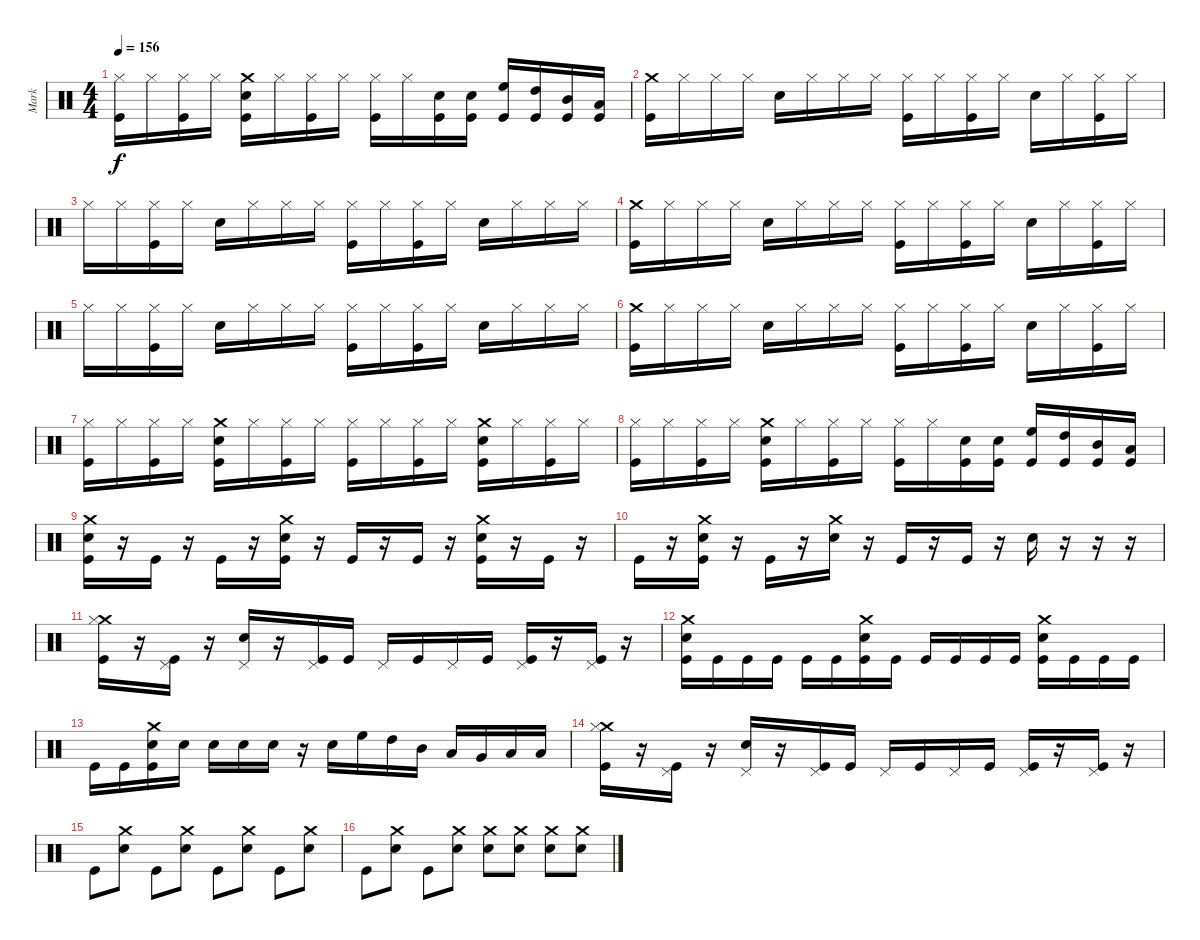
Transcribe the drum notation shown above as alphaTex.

\track ("Mark" "Mark") {instrument percussion}
\staff {score}
\articulation defaults
\ts (4 4)
\tempo 156
\clef neutral
\ks c
("Kick (hit)" "Hi-Hat (closed)").16{dy f} "Hi-Hat (closed)".16 ("Kick (hit)" "Hi-Hat (closed)").16 "Hi-Hat (closed)".16 ("Kick (hit)" "Snare (hit) 2" "Crash medium (hit)").16 "Hi-Hat (closed)".16 ("Kick (hit)" "Hi-Hat (closed)").16 "Hi-Hat (closed)".16 ("Kick (hit)" "Hi-Hat (closed)").16 "Hi-Hat (closed)".16 ("Snare (hit) 2" "Kick (hit)").16 ("Snare (hit) 2" "Kick (hit)").16 ("High Floor Tom (hit)" "Kick (hit)").16 ("High Tom (hit)" "Kick (hit)").16 ("Mid Tom (hit)" "Kick (hit)").16 ("Low Tom (hit)" "Kick (hit)").16 |
("Kick (hit)" "Crash medium (hit)").16 "Hi-Hat (closed)".16 "Hi-Hat (closed)".16 "Hi-Hat (closed)".16 "Snare (hit) 2".16 "Hi-Hat (closed)".16 "Hi-Hat (closed)".16 "Hi-Hat (closed)".16 ("Kick (hit)" "Hi-Hat (closed)").16 "Hi-Hat (closed)".16 ("Kick (hit)" "Hi-Hat (closed)").16 "Hi-Hat (closed)".16 "Snare (hit) 2".16 "Hi-Hat (closed)".16 ("Kick (hit)" "Hi-Hat (closed)").16 "Hi-Hat (closed)".16 |
"Hi-Hat (closed)".16 "Hi-Hat (closed)".16 ("Kick (hit)" "Hi-Hat (closed)").16 "Hi-Hat (closed)".16 "Snare (hit) 2".16 "Hi-Hat (closed)".16 "Hi-Hat (closed)".16 "Hi-Hat (closed)".16 ("Kick (hit)" "Hi-Hat (closed)").16 "Hi-Hat (closed)".16 ("Kick (hit)" "Hi-Hat (closed)").16 "Hi-Hat (closed)".16 "Snare (hit) 2".16 "Hi-Hat (closed)".16 "Hi-Hat (closed)".16 "Hi-Hat (closed)".16 |
("Kick (hit)" "Crash medium (hit)").16 "Hi-Hat (closed)".16 "Hi-Hat (closed)".16 "Hi-Hat (closed)".16 "Snare (hit) 2".16 "Hi-Hat (closed)".16 "Hi-Hat (closed)".16 "Hi-Hat (closed)".16 ("Kick (hit)" "Hi-Hat (closed)").16 "Hi-Hat (closed)".16 ("Kick (hit)" "Hi-Hat (closed)").16 "Hi-Hat (closed)".16 "Snare (hit) 2".16 "Hi-Hat (closed)".16 ("Kick (hit)" "Hi-Hat (closed)").16 "Hi-Hat (closed)".16 |
"Hi-Hat (closed)".16 "Hi-Hat (closed)".16 ("Kick (hit)" "Hi-Hat (closed)").16 "Hi-Hat (closed)".16 "Snare (hit) 2".16 "Hi-Hat (closed)".16 "Hi-Hat (closed)".16 "Hi-Hat (closed)".16 ("Kick (hit)" "Hi-Hat (closed)").16 "Hi-Hat (closed)".16 ("Kick (hit)" "Hi-Hat (closed)").16 "Hi-Hat (closed)".16 "Snare (hit) 2".16 "Hi-Hat (closed)".16 "Hi-Hat (closed)".16 "Hi-Hat (closed)".16 |
("Kick (hit)" "Crash medium (hit)").16 "Hi-Hat (closed)".16 "Hi-Hat (closed)".16 "Hi-Hat (closed)".16 "Snare (hit) 2".16 "Hi-Hat (closed)".16 "Hi-Hat (closed)".16 "Hi-Hat (closed)".16 ("Kick (hit)" "Hi-Hat (closed)").16 "Hi-Hat (closed)".16 ("Kick (hit)" "Hi-Hat (closed)").16 "Hi-Hat (closed)".16 "Snare (hit) 2".16 "Hi-Hat (closed)".16 ("Kick (hit)" "Hi-Hat (closed)").16 "Hi-Hat (closed)".16 |
("Kick (hit)" "Hi-Hat (closed)").16 "Hi-Hat (closed)".16 ("Kick (hit)" "Hi-Hat (closed)").16 "Hi-Hat (closed)".16 ("Kick (hit)" "Snare (hit) 2" "Crash medium (hit)").16 "Hi-Hat (closed)".16 ("Kick (hit)" "Hi-Hat (closed)").16 "Hi-Hat (closed)".16 ("Kick (hit)" "Hi-Hat (closed)").16 "Hi-Hat (closed)".16 ("Kick (hit)" "Hi-Hat (closed)").16 "Hi-Hat (closed)".16 ("Kick (hit)" "Snare (hit) 2" "Crash medium (hit)").16 "Hi-Hat (closed)".16 ("Kick (hit)" "Hi-Hat (closed)").16 "Hi-Hat (closed)".16 |
("Kick (hit)" "Hi-Hat (closed)").16 "Hi-Hat (closed)".16 ("Kick (hit)" "Hi-Hat (closed)").16 "Hi-Hat (closed)".16 ("Kick (hit)" "Snare (hit) 2" "Crash medium (hit)").16 "Hi-Hat (closed)".16 ("Kick (hit)" "Hi-Hat (closed)").16 "Hi-Hat (closed)".16 ("Kick (hit)" "Hi-Hat (closed)").16 "Hi-Hat (closed)".16 ("Snare (hit) 2" "Kick (hit)").16 ("Snare (hit) 2" "Kick (hit)").16 ("High Floor Tom (hit)" "Kick (hit)").16 ("High Tom (hit)" "Kick (hit)").16 ("Mid Tom (hit)" "Kick (hit)").16 ("Low Tom (hit)" "Kick (hit)").16 |
("Crash medium (hit)" "Kick (hit)" "Snare (hit) 2").16 r.16 "Kick (hit)".16 r.16 "Kick (hit)".16 r.16 ("Crash medium (hit)" "Kick (hit)" "Snare (hit) 2").16 r.16 "Kick (hit)".16 r.16 "Kick (hit)".16 r.16 ("Crash medium (hit)" "Kick (hit)" "Snare (hit) 2").16 r.16 "Kick (hit)".16 r.16 |
"Kick (hit)".16 r.16 ("Crash medium (hit)" "Kick (hit)" "Snare (hit) 2").16 r.16 "Kick (hit)".16 r.16 ("Crash medium (hit)" "Snare (hit) 2").16 r.16 "Kick (hit)".16 r.16 "Kick (hit)".16 r.16 "Snare (hit) 2".16 r.16 r.16 r.16 |
("Crash medium (hit)" "Hi-Hat (closed)" "Kick (hit)").16 r.16 ("Pedal Hi-Hat (hit)" "Kick (hit)").16 r.16 ("Pedal Hi-Hat (hit)" "Snare (hit) 2").16 r.16 ("Pedal Hi-Hat (hit)" "Kick (hit)").16 "Kick (hit)".16 "Pedal Hi-Hat (hit)".16 "Kick (hit)".16 "Pedal Hi-Hat (hit)".16 "Kick (hit)".16 ("Pedal Hi-Hat (hit)" "Kick (hit)").16 r.16 ("Pedal Hi-Hat (hit)" "Kick (hit)").16 r.16 |
("Crash medium (hit)" "Kick (hit)" "Snare (hit) 2").16 "Kick (hit)".16 "Kick (hit)".16 "Kick (hit)".16 "Kick (hit)".16 "Kick (hit)".16 ("Crash medium (hit)" "Kick (hit)" "Snare (hit) 2").16 "Kick (hit)".16 "Kick (hit)".16 "Kick (hit)".16 "Kick (hit)".16 "Kick (hit)".16 ("Crash medium (hit)" "Kick (hit)" "Snare (hit) 2").16 "Kick (hit)".16 "Kick (hit)".16 "Kick (hit)".16 |
"Kick (hit)".16 "Kick (hit)".16 ("Crash medium (hit)" "Kick (hit)" "Snare (hit) 2").16 "Snare (hit) 2".16 "Snare (hit) 2".16 "Snare (hit) 2".16 "Snare (hit) 2".16 r.16 "Snare (hit) 2".16 "High Floor Tom (hit)".16 "High Tom (hit)".16 "Mid Tom (hit)".16 "Low Tom (hit)".16 "Very Low Tom (hit)".16 "Low Floor Tom (hit)".16 "Low Floor Tom (hit)".16 |
("Crash medium (hit)" "Hi-Hat (closed)" "Kick (hit)").16 r.16 ("Pedal Hi-Hat (hit)" "Kick (hit)").16 r.16 ("Pedal Hi-Hat (hit)" "Snare (hit) 2").16 r.16 ("Pedal Hi-Hat (hit)" "Kick (hit)").16 "Kick (hit)".16 "Pedal Hi-Hat (hit)".16 "Kick (hit)".16 "Pedal Hi-Hat (hit)".16 "Kick (hit)".16 ("Pedal Hi-Hat (hit)" "Kick (hit)").16 r.16 ("Pedal Hi-Hat (hit)" "Kick (hit)").16 r.16 |
"Kick (hit)".8 ("Crash medium (hit)" "Snare (hit) 2").8 "Kick (hit)".8 ("Crash medium (hit)" "Snare (hit) 2").8 "Kick (hit)".8 ("Crash medium (hit)" "Snare (hit) 2").8 "Kick (hit)".8 ("Crash medium (hit)" "Snare (hit) 2").8 |
"Kick (hit)".8 ("Crash medium (hit)" "Snare (hit) 2").8 "Kick (hit)".8 ("Crash medium (hit)" "Snare (hit) 2").8 ("Crash medium (hit)" "Snare (hit) 2").8 ("Crash medium (hit)" "Snare (hit) 2").8 ("Crash medium (hit)" "Snare (hit) 2").8 ("Crash medium (hit)" "Snare (hit) 2").8
